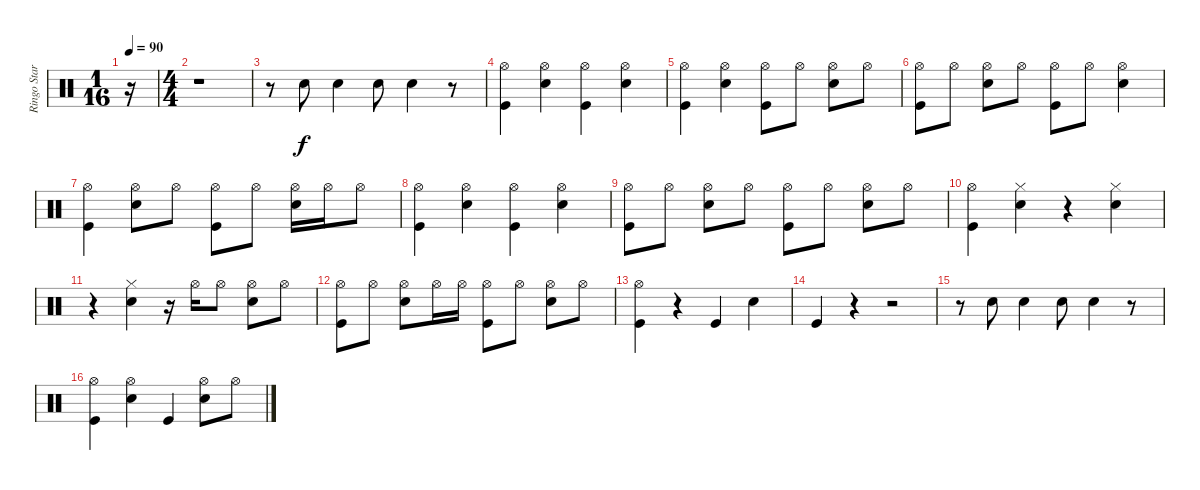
\track ("Ringo Starr" "Ringo Star") {instrument percussion}
\staff {score}
\articulation defaults
\ts (1 16)
\tempo 90
\clef neutral
\ks c
r.16{dy f} |
\ts (4 4)
r.1 |
r.8 "Snare (hit) 2".8 "Snare (hit) 2".4 "Snare (hit) 2".8 "Snare (hit) 2".4 r.8 |
("Hi-Hat (open)" "Kick (hit)").4 ("Hi-Hat (open)" "Snare (hit) 2").4 ("Hi-Hat (open)" "Kick (hit)").4 ("Hi-Hat (open)" "Snare (hit) 2").4 |
("Hi-Hat (open)" "Kick (hit)").4 ("Hi-Hat (open)" "Snare (hit) 2").4 ("Hi-Hat (open)" "Kick (hit)").8 "Hi-Hat (open)".8 ("Hi-Hat (open)" "Snare (hit) 2").8 "Hi-Hat (open)".8 |
("Hi-Hat (open)" "Kick (hit)").8 "Hi-Hat (open)".8 ("Hi-Hat (open)" "Snare (hit) 2").8 "Hi-Hat (open)".8 ("Hi-Hat (open)" "Kick (hit)").8 "Hi-Hat (open)".8 ("Hi-Hat (open)" "Snare (hit) 2").4 |
("Hi-Hat (open)" "Kick (hit)").4 ("Hi-Hat (open)" "Snare (hit) 2").8 "Hi-Hat (open)".8 ("Hi-Hat (open)" "Kick (hit)").8 "Hi-Hat (open)".8 ("Hi-Hat (open)" "Snare (hit) 2").16 "Hi-Hat (open)".16 "Hi-Hat (open)".8 |
("Hi-Hat (open)" "Kick (hit)").4 ("Hi-Hat (open)" "Snare (hit) 2").4 ("Hi-Hat (open)" "Kick (hit)").4 ("Hi-Hat (open)" "Snare (hit) 2").4 |
("Hi-Hat (open)" "Kick (hit)").8 "Hi-Hat (open)".8 ("Hi-Hat (open)" "Snare (hit) 2").8 "Hi-Hat (open)".8 ("Hi-Hat (open)" "Kick (hit)").8 "Hi-Hat (open)".8 ("Hi-Hat (open)" "Snare (hit) 2").8 "Hi-Hat (open)".8 |
("Hi-Hat (open)" "Kick (hit)").4 ("Hi-Hat (closed)" "Snare (hit) 2").4 r.4 ("Hi-Hat (closed)" "Snare (hit) 2").4 |
r.4 ("Hi-Hat (closed)" "Snare (hit) 2").4 r.16 "Hi-Hat (open)".16 "Hi-Hat (open)".8 ("Hi-Hat (open)" "Snare (hit) 2").8 "Hi-Hat (open)".8 |
("Hi-Hat (open)" "Kick (hit)").8 "Hi-Hat (open)".8 ("Hi-Hat (open)" "Snare (hit) 2").8 "Hi-Hat (open)".16 "Hi-Hat (open)".16 ("Hi-Hat (open)" "Kick (hit)").8 "Hi-Hat (open)".8 ("Hi-Hat (open)" "Snare (hit) 2").8 "Hi-Hat (open)".8 |
("Hi-Hat (open)" "Kick (hit)").4 r.4 "Kick (hit)".4 "Snare (hit) 2".4 |
"Kick (hit)".4 r.4 r.2 |
r.8 "Snare (hit) 2".8 "Snare (hit) 2".4 "Snare (hit) 2".8 "Snare (hit) 2".4 r.8 |
("Hi-Hat (open)" "Kick (hit)").4 ("Hi-Hat (open)" "Snare (hit) 2").4 "Kick (hit)".4 ("Hi-Hat (open)" "Snare (hit) 2").8 "Hi-Hat (open)".8
